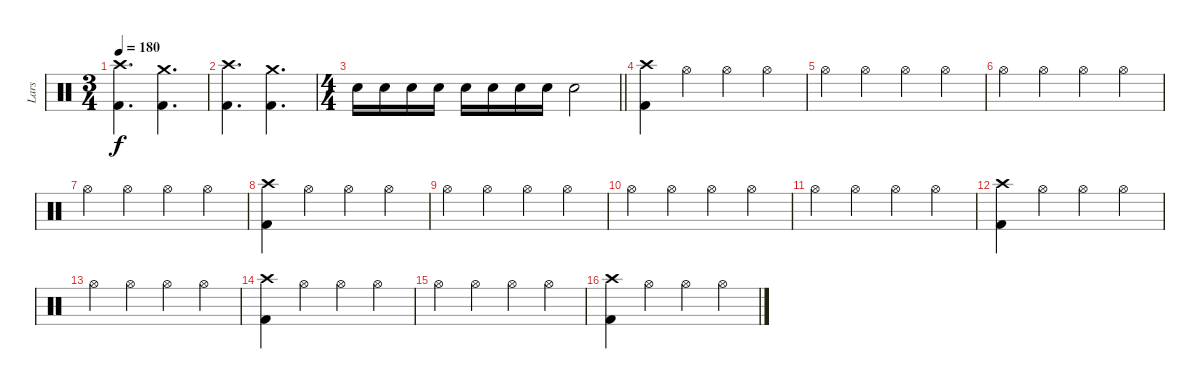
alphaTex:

\track ("Lars" "Lars") {instrument percussion}
\staff {score}
\articulation defaults
\ts (3 4)
\tempo 180
\clef neutral
\ks c
("Crash high (hit)" "Kick (hit) 2").4{d dy f} ("Crash medium (hit)" "Kick (hit) 2").4{d} |
("Crash high (hit)" "Kick (hit) 2").4{d} ("Crash medium (hit)" "Kick (hit) 2").4{d} |
\ts (4 4)
\barLineRight lightlight "Electric Snare (hit)".16 "Electric Snare (hit)".16 "Electric Snare (hit)".16 "Electric Snare (hit)".16 "Electric Snare (hit)".16 "Electric Snare (hit)".16 "Electric Snare (hit)".16 "Electric Snare (hit)".16 "Electric Snare (hit)".2
|
\section ("" "")
("Crash high (hit)" "Kick (hit) 2").4 "Hi-Hat (open)".4 "Hi-Hat (open)".4 "Hi-Hat (open)".4 |
"Hi-Hat (open)".4 "Hi-Hat (open)".4 "Hi-Hat (open)".4 "Hi-Hat (open)".4 |
"Hi-Hat (open)".4 "Hi-Hat (open)".4 "Hi-Hat (open)".4 "Hi-Hat (open)".4 |
"Hi-Hat (open)".4 "Hi-Hat (open)".4 "Hi-Hat (open)".4 "Hi-Hat (open)".4 |
("Crash high (hit)" "Kick (hit) 2").4 "Hi-Hat (open)".4 "Hi-Hat (open)".4 "Hi-Hat (open)".4 |
"Hi-Hat (open)".4 "Hi-Hat (open)".4 "Hi-Hat (open)".4 "Hi-Hat (open)".4 |
"Hi-Hat (open)".4 "Hi-Hat (open)".4 "Hi-Hat (open)".4 "Hi-Hat (open)".4 |
"Hi-Hat (open)".4 "Hi-Hat (open)".4 "Hi-Hat (open)".4 "Hi-Hat (open)".4 |
("Crash high (hit)" "Kick (hit) 2").4 "Hi-Hat (open)".4 "Hi-Hat (open)".4 "Hi-Hat (open)".4 |
"Hi-Hat (open)".4 "Hi-Hat (open)".4 "Hi-Hat (open)".4 "Hi-Hat (open)".4 |
("Crash high (hit)" "Kick (hit) 2").4 "Hi-Hat (open)".4 "Hi-Hat (open)".4 "Hi-Hat (open)".4 |
"Hi-Hat (open)".4 "Hi-Hat (open)".4 "Hi-Hat (open)".4 "Hi-Hat (open)".4 |
("Crash high (hit)" "Kick (hit) 2").4 "Hi-Hat (open)".4 "Hi-Hat (open)".4 "Hi-Hat (open)".4
